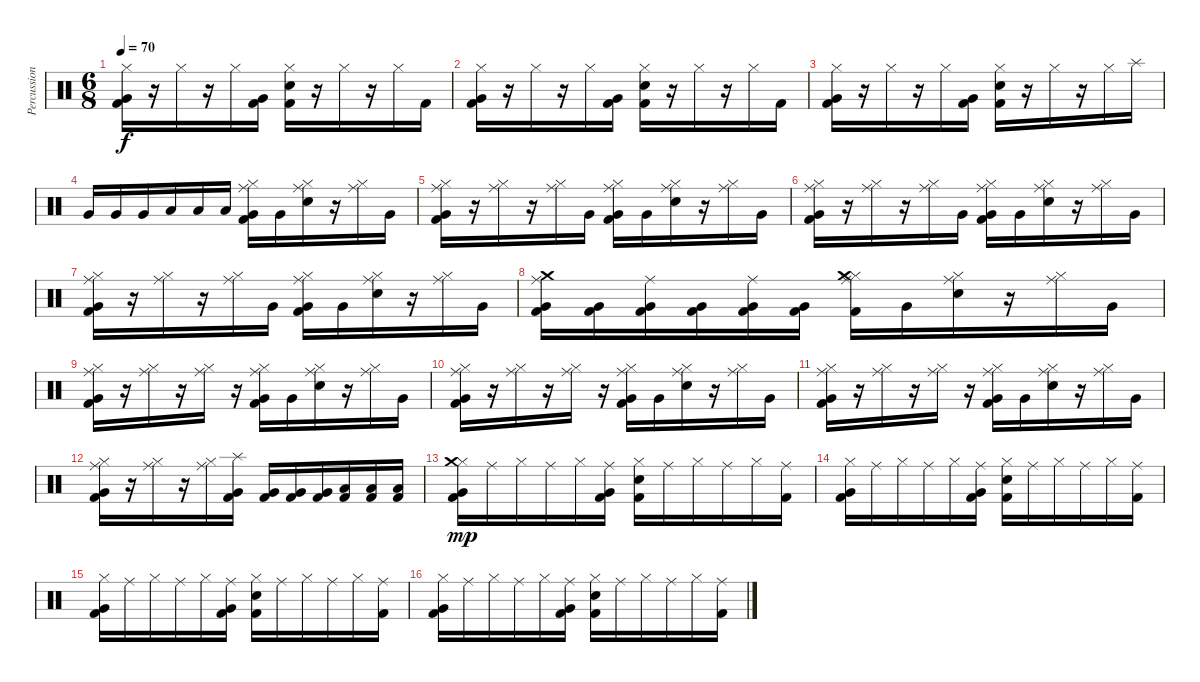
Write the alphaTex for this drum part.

\track ("Percussion" "Percussion") {instrument percussion}
\staff {score}
\articulation defaults
\ts (6 8)
\tempo 70
\clef neutral
\ks c
("Very Low Tom (hit)" "Hi-Hat (closed)" "Kick (hit) 2").16{dy f} r.16 "Hi-Hat (closed)".16 r.16 "Hi-Hat (closed)".16 ("Kick (hit) 2" "Very Low Tom (hit)").16 ("Hi-Hat (closed)" "Electric Snare (hit)" "Kick (hit) 2").16 r.16 "Hi-Hat (closed)".16 r.16 "Hi-Hat (closed)".16 "Kick (hit) 2".16 |
("Very Low Tom (hit)" "Hi-Hat (closed)" "Kick (hit) 2").16 r.16 "Hi-Hat (closed)".16 r.16 "Hi-Hat (closed)".16 ("Kick (hit) 2" "Very Low Tom (hit)").16 ("Hi-Hat (closed)" "Electric Snare (hit)" "Kick (hit) 2").16 r.16 "Hi-Hat (closed)".16 r.16 "Hi-Hat (closed)".16 "Kick (hit) 2".16 |
("Very Low Tom (hit)" "Hi-Hat (closed)" "Kick (hit) 2").16 r.16 "Hi-Hat (closed)".16 r.16 "Hi-Hat (closed)".16 ("Kick (hit) 2" "Very Low Tom (hit)").16 ("Hi-Hat (closed)" "Electric Snare (hit)" "Kick (hit) 2").16 r.16 "Hi-Hat (closed)".16 r.16 "Hi-Hat (closed)".16 "Splash (hit)".16 |
"Very Low Tom (hit)".16 "Very Low Tom (hit)".16 "Very Low Tom (hit)".16 "Low Floor Tom (hit)".16 "Low Floor Tom (hit)".16 "Low Floor Tom (hit)".16 ("Ride (middle)" "Very Low Tom (hit)" "Hi-Hat (closed)" "Kick (hit) 2").16 "Very Low Tom (hit)".16 ("Ride (middle)" "Electric Snare (hit)" "Hi-Hat (closed)").16 r.16 ("Ride (middle)" "Hi-Hat (closed)").16 "Very Low Tom (hit)".16 |
("Ride (middle)" "Very Low Tom (hit)" "Hi-Hat (closed)" "Kick (hit) 2").16 r.16 ("Ride (middle)" "Hi-Hat (closed)").16 r.16 ("Ride (middle)" "Hi-Hat (closed)").16 "Very Low Tom (hit)".16 ("Ride (middle)" "Very Low Tom (hit)" "Hi-Hat (closed)" "Kick (hit) 2").16 "Very Low Tom (hit)".16 ("Ride (middle)" "Electric Snare (hit)" "Hi-Hat (closed)").16 r.16 ("Ride (middle)" "Hi-Hat (closed)").16 "Very Low Tom (hit)".16 |
("Ride (middle)" "Very Low Tom (hit)" "Hi-Hat (closed)" "Kick (hit) 2").16 r.16 ("Ride (middle)" "Hi-Hat (closed)").16 r.16 ("Ride (middle)" "Hi-Hat (closed)").16 "Very Low Tom (hit)".16 ("Ride (middle)" "Very Low Tom (hit)" "Hi-Hat (closed)" "Kick (hit) 2").16 "Very Low Tom (hit)".16 ("Ride (middle)" "Electric Snare (hit)" "Hi-Hat (closed)").16 r.16 ("Ride (middle)" "Hi-Hat (closed)").16 "Very Low Tom (hit)".16 |
("Ride (middle)" "Very Low Tom (hit)" "Hi-Hat (closed)" "Kick (hit) 2").16 r.16 ("Ride (middle)" "Hi-Hat (closed)").16 r.16 ("Ride (middle)" "Hi-Hat (closed)").16 "Very Low Tom (hit)".16 ("Ride (middle)" "Very Low Tom (hit)" "Hi-Hat (closed)" "Kick (hit) 2").16 "Very Low Tom (hit)".16 ("Ride (middle)" "Electric Snare (hit)" "Hi-Hat (closed)").16 r.16 ("Ride (middle)" "Hi-Hat (closed)").16 "Very Low Tom (hit)".16 |
("Kick (hit) 2" "Very Low Tom (hit)" "Crash medium (hit)" "Ride (middle)").16 ("Kick (hit) 2" "Very Low Tom (hit)").16 ("Kick (hit) 2" "Very Low Tom (hit)" "Ride (middle)").16 ("Kick (hit) 2" "Very Low Tom (hit)").16 ("Kick (hit) 2" "Very Low Tom (hit)" "Ride (middle)").16 ("Kick (hit) 2" "Very Low Tom (hit)").16 ("Ride (middle)" "Hi-Hat (closed)" "Kick (hit) 2" "Crash medium (hit)").16 "Very Low Tom (hit)".16 ("Ride (middle)" "Electric Snare (hit)" "Hi-Hat (closed)").16 r.16 ("Ride (middle)" "Hi-Hat (closed)").16 "Very Low Tom (hit)".16 |
("Ride (middle)" "Very Low Tom (hit)" "Hi-Hat (closed)" "Kick (hit) 2").16 r.16 ("Ride (middle)" "Hi-Hat (closed)").16 r.16 ("Ride (middle)" "Hi-Hat (closed)").16 r.16 ("Ride (middle)" "Very Low Tom (hit)" "Hi-Hat (closed)" "Kick (hit) 2").16 "Very Low Tom (hit)".16 ("Ride (middle)" "Electric Snare (hit)" "Hi-Hat (closed)").16 r.16 ("Ride (middle)" "Hi-Hat (closed)").16 "Very Low Tom (hit)".16 |
("Ride (middle)" "Very Low Tom (hit)" "Hi-Hat (closed)" "Kick (hit) 2").16 r.16 ("Ride (middle)" "Hi-Hat (closed)").16 r.16 ("Ride (middle)" "Hi-Hat (closed)").16 r.16 ("Ride (middle)" "Very Low Tom (hit)" "Hi-Hat (closed)" "Kick (hit) 2").16 "Very Low Tom (hit)".16 ("Ride (middle)" "Electric Snare (hit)" "Hi-Hat (closed)").16 r.16 ("Ride (middle)" "Hi-Hat (closed)").16 "Very Low Tom (hit)".16 |
("Ride (middle)" "Very Low Tom (hit)" "Hi-Hat (closed)" "Kick (hit) 2").16 r.16 ("Ride (middle)" "Hi-Hat (closed)").16 r.16 ("Ride (middle)" "Hi-Hat (closed)").16 r.16 ("Ride (middle)" "Very Low Tom (hit)" "Hi-Hat (closed)" "Kick (hit) 2").16 "Very Low Tom (hit)".16 ("Ride (middle)" "Electric Snare (hit)" "Hi-Hat (closed)").16 r.16 ("Ride (middle)" "Hi-Hat (closed)").16 "Very Low Tom (hit)".16 |
("Ride (middle)" "Very Low Tom (hit)" "Hi-Hat (closed)" "Kick (hit) 2").16 r.16 ("Ride (middle)" "Hi-Hat (closed)").16 r.16 ("Ride (middle)" "Hi-Hat (closed)").16 ("Splash (hit)" "Kick (hit) 2" "Very Low Tom (hit)").16 ("Kick (hit) 2" "Very Low Tom (hit)").16 ("Kick (hit) 2" "Very Low Tom (hit)").16 ("Kick (hit) 2" "Very Low Tom (hit)").16 ("Kick (hit) 2" "Low Floor Tom (hit)").16 ("Kick (hit) 2" "Low Floor Tom (hit)").16 ("Kick (hit) 2" "Low Floor Tom (hit)").16 |
("Very Low Tom (hit)" "Hi-Hat (closed)" "Crash medium (hit)" "Kick (hit) 2").16{dy mp} "Ride (middle)".16 "Hi-Hat (closed)".16 "Ride (middle)".16 "Hi-Hat (closed)".16 ("Ride (middle)" "Kick (hit) 2" "Very Low Tom (hit)").16 ("Hi-Hat (closed)" "Electric Snare (hit)" "Kick (hit) 2").16 "Ride (middle)".16 "Hi-Hat (closed)".16 "Ride (middle)".16 "Hi-Hat (closed)".16 ("Ride (middle)" "Kick (hit) 2").16 |
("Very Low Tom (hit)" "Hi-Hat (closed)" "Kick (hit) 2").16 "Ride (middle)".16 "Hi-Hat (closed)".16 "Ride (middle)".16 "Hi-Hat (closed)".16 ("Ride (middle)" "Kick (hit) 2" "Very Low Tom (hit)").16 ("Hi-Hat (closed)" "Electric Snare (hit)" "Kick (hit) 2").16 "Ride (middle)".16 "Hi-Hat (closed)".16 "Ride (middle)".16 "Hi-Hat (closed)".16 ("Ride (middle)" "Kick (hit) 2").16 |
("Very Low Tom (hit)" "Hi-Hat (closed)" "Kick (hit) 2").16 "Ride (middle)".16 "Hi-Hat (closed)".16 "Ride (middle)".16 "Hi-Hat (closed)".16 ("Ride (middle)" "Kick (hit) 2" "Very Low Tom (hit)").16 ("Hi-Hat (closed)" "Electric Snare (hit)" "Kick (hit) 2").16 "Ride (middle)".16 "Hi-Hat (closed)".16 "Ride (middle)".16 "Hi-Hat (closed)".16 ("Ride (middle)" "Kick (hit) 2").16 |
("Very Low Tom (hit)" "Hi-Hat (closed)" "Kick (hit) 2").16 "Ride (middle)".16 "Hi-Hat (closed)".16 "Ride (middle)".16 "Hi-Hat (closed)".16 ("Ride (middle)" "Kick (hit) 2" "Very Low Tom (hit)").16 ("Hi-Hat (closed)" "Electric Snare (hit)" "Kick (hit) 2").16 "Ride (middle)".16 "Hi-Hat (closed)".16 "Ride (middle)".16 "Hi-Hat (closed)".16 ("Ride (middle)" "Kick (hit) 2").16
